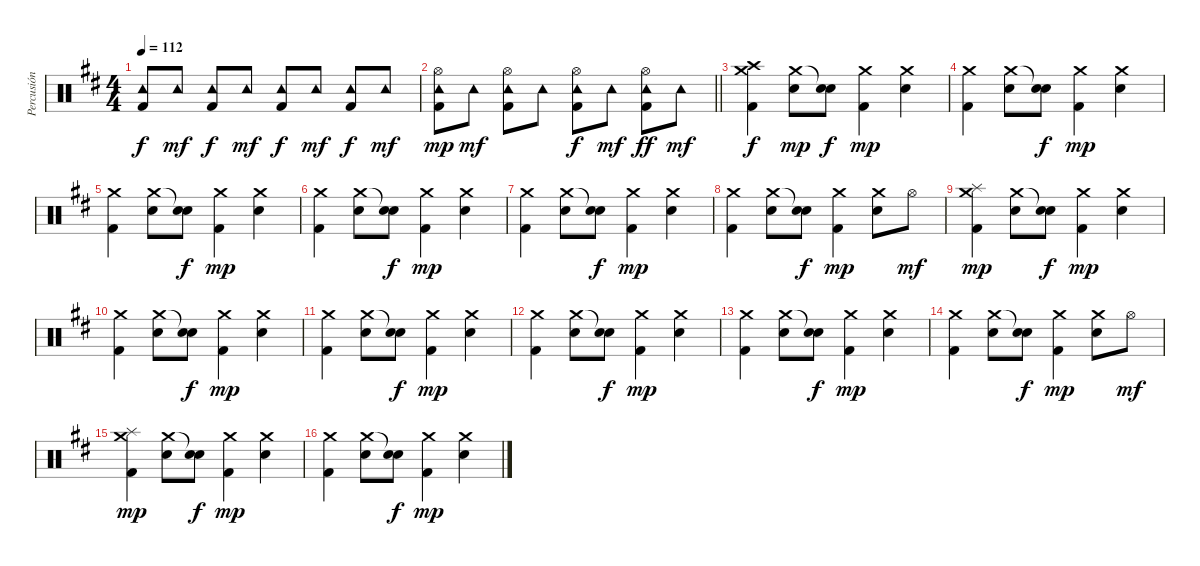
\track ("Percusión" "Percusión") {instrument percussion}
\staff {score}
\articulation defaults
\ts (4 4)
\tempo 112
\clef neutral
\ks d
("Tambourine (hit)" "Kick (hit) 2").8{dy f} "Tambourine (hit)".8{dy mf} ("Tambourine (hit)" "Kick (hit) 2").8{dy f} "Tambourine (hit)".8{dy mf} ("Tambourine (hit)" "Kick (hit) 2").8{dy f} "Tambourine (hit)".8{dy mf} ("Tambourine (hit)" "Kick (hit) 2").8{dy f} "Tambourine (hit)".8{dy mf} |
\barLineRight lightlight
("Hi-Hat (open)" "Tambourine (hit)" "Kick (hit) 2").8{dy mp} "Tambourine (hit)".8{dy mf} ("Hi-Hat (open)" "Tambourine (hit)" "Kick (hit) 2").8 "Tambourine (hit)".8 ("Hi-Hat (open)" "Tambourine (hit)" "Kick (hit) 2").8{dy f} "Tambourine (hit)".8{dy mf} ("Hi-Hat (open)" "Tambourine (hit)" "Kick (hit) 2").8{dy ff} "Tambourine (hit)".8{dy mf} |
("Crash high (hit)" "Crash medium (hit)" "Kick (hit) 2").4{dy f} ("Crash medium (hit)" "Snare (hit) 2").8{dy mp} ("Snare (hit)"{t} "Snare (hit) 2").8{dy f} ("Crash medium (hit)" "Kick (hit) 2").4{dy mp} ("Crash medium (hit)" "Snare (hit) 2").4 |
("Crash medium (hit)" "Kick (hit) 2").4 ("Crash medium (hit)" "Snare (hit) 2").8 ("Snare (hit)"{t} "Snare (hit) 2").8{dy f} ("Crash medium (hit)" "Kick (hit) 2").4{dy mp} ("Crash medium (hit)" "Snare (hit) 2").4 |
("Crash medium (hit)" "Kick (hit) 2").4 ("Crash medium (hit)" "Snare (hit) 2").8 ("Snare (hit)"{t} "Snare (hit) 2").8{dy f} ("Crash medium (hit)" "Kick (hit) 2").4{dy mp} ("Crash medium (hit)" "Snare (hit) 2").4 |
("Crash medium (hit)" "Kick (hit) 2").4 ("Crash medium (hit)" "Snare (hit) 2").8 ("Snare (hit)"{t} "Snare (hit) 2").8{dy f} ("Crash medium (hit)" "Kick (hit) 2").4{dy mp} ("Crash medium (hit)" "Snare (hit) 2").4 |
("Crash medium (hit)" "Kick (hit) 2").4 ("Crash medium (hit)" "Snare (hit) 2").8 ("Snare (hit)"{t} "Snare (hit) 2").8{dy f} ("Crash medium (hit)" "Kick (hit) 2").4{dy mp} ("Crash medium (hit)" "Snare (hit) 2").4 |
("Crash medium (hit)" "Kick (hit) 2").4 ("Crash medium (hit)" "Snare (hit) 2").8 ("Snare (hit)"{t} "Snare (hit) 2").8{dy f} ("Crash medium (hit)" "Kick (hit) 2").4{dy mp} ("Crash medium (hit)" "Snare (hit) 2").8 "Hi-Hat (open)".8{dy mf} |
("Splash (hit)" "Crash medium (hit)" "Kick (hit) 2").4{dy mp} ("Crash medium (hit)" "Snare (hit) 2").8 ("Snare (hit)"{t} "Snare (hit) 2").8{dy f} ("Crash medium (hit)" "Kick (hit) 2").4{dy mp} ("Crash medium (hit)" "Snare (hit) 2").4 |
("Crash medium (hit)" "Kick (hit) 2").4 ("Crash medium (hit)" "Snare (hit) 2").8 ("Snare (hit)"{t} "Snare (hit) 2").8{dy f} ("Crash medium (hit)" "Kick (hit) 2").4{dy mp} ("Crash medium (hit)" "Snare (hit) 2").4 |
("Crash medium (hit)" "Kick (hit) 2").4 ("Crash medium (hit)" "Snare (hit) 2").8 ("Snare (hit)"{t} "Snare (hit) 2").8{dy f} ("Crash medium (hit)" "Kick (hit) 2").4{dy mp} ("Crash medium (hit)" "Snare (hit) 2").4 |
("Crash medium (hit)" "Kick (hit) 2").4 ("Crash medium (hit)" "Snare (hit) 2").8 ("Snare (hit)"{t} "Snare (hit) 2").8{dy f} ("Crash medium (hit)" "Kick (hit) 2").4{dy mp} ("Crash medium (hit)" "Snare (hit) 2").4 |
("Crash medium (hit)" "Kick (hit) 2").4 ("Crash medium (hit)" "Snare (hit) 2").8 ("Snare (hit)"{t} "Snare (hit) 2").8{dy f} ("Crash medium (hit)" "Kick (hit) 2").4{dy mp} ("Crash medium (hit)" "Snare (hit) 2").4 |
("Crash medium (hit)" "Kick (hit) 2").4 ("Crash medium (hit)" "Snare (hit) 2").8 ("Snare (hit)"{t} "Snare (hit) 2").8{dy f} ("Crash medium (hit)" "Kick (hit) 2").4{dy mp} ("Crash medium (hit)" "Snare (hit) 2").8 "Hi-Hat (open)".8{dy mf} |
("Splash (hit)" "Crash medium (hit)" "Kick (hit) 2").4{dy mp} ("Crash medium (hit)" "Snare (hit) 2").8 ("Snare (hit)"{t} "Snare (hit) 2").8{dy f} ("Crash medium (hit)" "Kick (hit) 2").4{dy mp} ("Crash medium (hit)" "Snare (hit) 2").4 |
("Crash medium (hit)" "Kick (hit) 2").4 ("Crash medium (hit)" "Snare (hit) 2").8 ("Snare (hit)"{t} "Snare (hit) 2").8{dy f} ("Crash medium (hit)" "Kick (hit) 2").4{dy mp} ("Crash medium (hit)" "Snare (hit) 2").4
